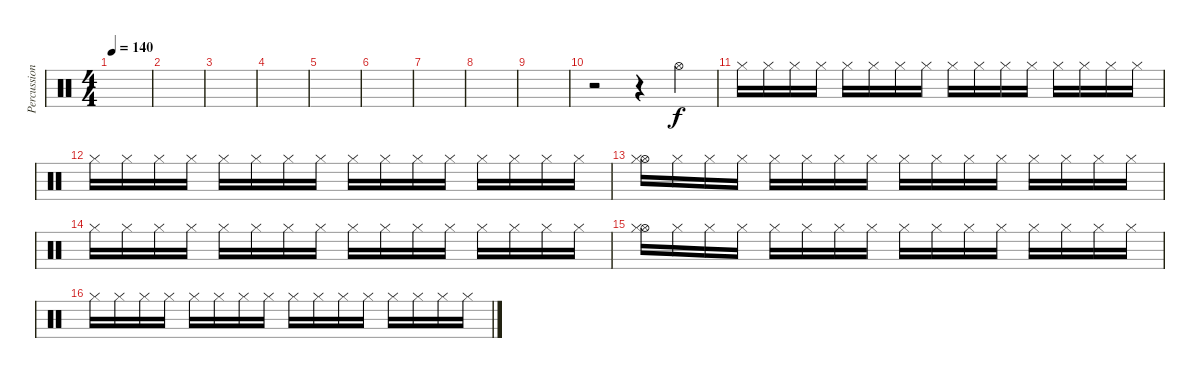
\track ("Percussion" "Percussion") {instrument percussion}
\staff {score}
\articulation defaults
\ts (4 4)
\tempo 140
\clef neutral
\ks c
|
|
|
|
|
|
|
|
|
r.2 r.4 "Hi-Hat (open)".4 |
"Hi-Hat (closed)".16 "Hi-Hat (closed)".16 "Hi-Hat (closed)".16 "Hi-Hat (closed)".16 "Hi-Hat (closed)".16 "Hi-Hat (closed)".16 "Hi-Hat (closed)".16 "Hi-Hat (closed)".16 "Hi-Hat (closed)".16 "Hi-Hat (closed)".16 "Hi-Hat (closed)".16 "Hi-Hat (closed)".16 "Hi-Hat (closed)".16 "Hi-Hat (closed)".16 "Hi-Hat (closed)".16 "Hi-Hat (closed)".16 |
"Hi-Hat (closed)".16 "Hi-Hat (closed)".16 "Hi-Hat (closed)".16 "Hi-Hat (closed)".16 "Hi-Hat (closed)".16 "Hi-Hat (closed)".16 "Hi-Hat (closed)".16 "Hi-Hat (closed)".16 "Hi-Hat (closed)".16 "Hi-Hat (closed)".16 "Hi-Hat (closed)".16 "Hi-Hat (closed)".16 "Hi-Hat (closed)".16 "Hi-Hat (closed)".16 "Hi-Hat (closed)".16 "Hi-Hat (closed)".16 |
("Hi-Hat (open)" "Hi-Hat (closed)").16 "Hi-Hat (closed)".16 "Hi-Hat (closed)".16 "Hi-Hat (closed)".16 "Hi-Hat (closed)".16 "Hi-Hat (closed)".16 "Hi-Hat (closed)".16 "Hi-Hat (closed)".16 "Hi-Hat (closed)".16 "Hi-Hat (closed)".16 "Hi-Hat (closed)".16 "Hi-Hat (closed)".16 "Hi-Hat (closed)".16 "Hi-Hat (closed)".16 "Hi-Hat (closed)".16 "Hi-Hat (closed)".16 |
"Hi-Hat (closed)".16 "Hi-Hat (closed)".16 "Hi-Hat (closed)".16 "Hi-Hat (closed)".16 "Hi-Hat (closed)".16 "Hi-Hat (closed)".16 "Hi-Hat (closed)".16 "Hi-Hat (closed)".16 "Hi-Hat (closed)".16 "Hi-Hat (closed)".16 "Hi-Hat (closed)".16 "Hi-Hat (closed)".16 "Hi-Hat (closed)".16 "Hi-Hat (closed)".16 "Hi-Hat (closed)".16 "Hi-Hat (closed)".16 |
("Hi-Hat (open)" "Hi-Hat (closed)").16 "Hi-Hat (closed)".16 "Hi-Hat (closed)".16 "Hi-Hat (closed)".16 "Hi-Hat (closed)".16 "Hi-Hat (closed)".16 "Hi-Hat (closed)".16 "Hi-Hat (closed)".16 "Hi-Hat (closed)".16 "Hi-Hat (closed)".16 "Hi-Hat (closed)".16 "Hi-Hat (closed)".16 "Hi-Hat (closed)".16 "Hi-Hat (closed)".16 "Hi-Hat (closed)".16 "Hi-Hat (closed)".16 |
"Hi-Hat (closed)".16 "Hi-Hat (closed)".16 "Hi-Hat (closed)".16 "Hi-Hat (closed)".16 "Hi-Hat (closed)".16 "Hi-Hat (closed)".16 "Hi-Hat (closed)".16 "Hi-Hat (closed)".16 "Hi-Hat (closed)".16 "Hi-Hat (closed)".16 "Hi-Hat (closed)".16 "Hi-Hat (closed)".16 "Hi-Hat (closed)".16 "Hi-Hat (closed)".16 "Hi-Hat (closed)".16 "Hi-Hat (closed)".16
